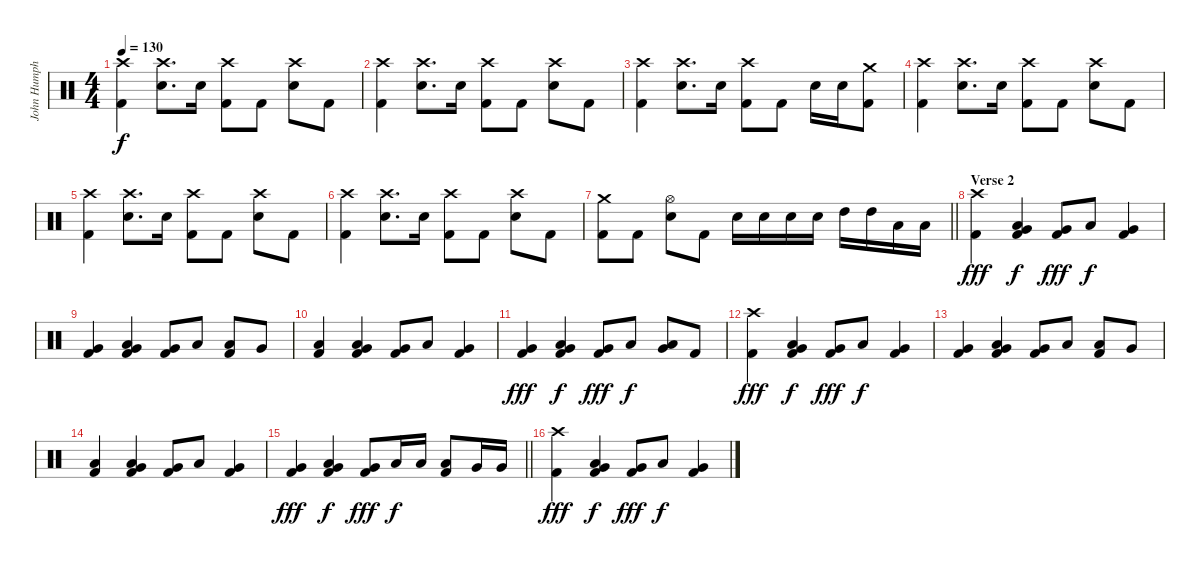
\track ("John Humphrey" "John Humph") {instrument percussion}
\staff {score}
\articulation defaults
\ts (4 4)
\tempo 130
\clef neutral
\ks c
("Crash high (hit)" "Kick (hit) 2").4{dy f} ("Crash high (hit)" "Electric Snare (hit)").8{d} "Electric Snare (hit)".16 ("Crash high (hit)" "Kick (hit) 2").8 "Kick (hit) 2".8 ("Crash high (hit)" "Electric Snare (hit)").8 "Kick (hit) 2".8 |
("Crash high (hit)" "Kick (hit) 2").4 ("Crash high (hit)" "Electric Snare (hit)").8{d} "Electric Snare (hit)".16 ("Crash high (hit)" "Kick (hit) 2").8 "Kick (hit) 2".8 ("Crash high (hit)" "Electric Snare (hit)").8 "Kick (hit) 2".8 |
("Crash high (hit)" "Kick (hit) 2").4 ("Crash high (hit)" "Electric Snare (hit)").8{d} "Electric Snare (hit)".16 ("Crash high (hit)" "Kick (hit) 2").8 "Kick (hit) 2".8 "Electric Snare (hit)".16 "Electric Snare (hit)".16 ("Crash medium (hit)" "Kick (hit) 2").8 |
("Crash high (hit)" "Kick (hit) 2").4 ("Crash high (hit)" "Electric Snare (hit)").8{d} "Electric Snare (hit)".16 ("Crash high (hit)" "Kick (hit) 2").8 "Kick (hit) 2".8 ("Crash high (hit)" "Electric Snare (hit)").8 "Kick (hit) 2".8 |
("Crash high (hit)" "Kick (hit) 2").4 ("Crash high (hit)" "Electric Snare (hit)").8{d} "Electric Snare (hit)".16 ("Crash high (hit)" "Kick (hit) 2").8 "Kick (hit) 2".8 ("Crash high (hit)" "Electric Snare (hit)").8 "Kick (hit) 2".8 |
("Crash high (hit)" "Kick (hit) 2").4 ("Crash high (hit)" "Electric Snare (hit)").8{d} "Electric Snare (hit)".16 ("Crash high (hit)" "Kick (hit) 2").8 "Kick (hit) 2".8 ("Crash high (hit)" "Electric Snare (hit)").8 "Kick (hit) 2".8 |
\barLineRight lightlight
("Crash medium (hit)" "Kick (hit) 2").8 "Kick (hit) 2".8 ("Hi-Hat (open)" "Electric Snare (hit)").8 "Kick (hit) 2".8 "Electric Snare (hit)".16 "Electric Snare (hit)".16 "Electric Snare (hit)".16 "Electric Snare (hit)".16 "High Tom (hit)".16 "High Tom (hit)".16 "Low Tom (hit)".16 "Low Tom (hit)".16 |
\section ("" "Verse 2")
("Crash high (hit)" "Kick (hit) 2").4{dy fff} ("Low Tom (hit)" "Very Low Tom (hit)" "Kick (hit) 2").4{dy f} ("Very Low Tom (hit)" "Kick (hit) 2").8{dy fff} "Low Tom (hit)".8{dy f} ("Very Low Tom (hit)" "Kick (hit) 2").4 |
("Very Low Tom (hit)" "Kick (hit) 2").4 ("Low Tom (hit)" "Very Low Tom (hit)" "Kick (hit) 2").4 ("Very Low Tom (hit)" "Kick (hit) 2").8 "Low Tom (hit)".8 ("Low Floor Tom (hit)" "Kick (hit) 2").8 "Very Low Tom (hit)".8 |
("Low Floor Tom (hit)" "Kick (hit) 2").4 ("Low Tom (hit)" "Very Low Tom (hit)" "Kick (hit) 2").4 ("Very Low Tom (hit)" "Kick (hit) 2").8 "Low Tom (hit)".8 ("Very Low Tom (hit)" "Kick (hit) 2").4 |
("Very Low Tom (hit)" "Kick (hit) 2").4{dy fff} ("Low Tom (hit)" "Very Low Tom (hit)" "Kick (hit) 2").4{dy f} ("Very Low Tom (hit)" "Kick (hit) 2").8{dy fff} "Low Tom (hit)".8{dy f} ("Low Tom (hit)" "Very Low Tom (hit)").8{bd 120} "Kick (hit) 2".8 |
("Crash high (hit)" "Kick (hit) 2").4{dy fff} ("Low Tom (hit)" "Very Low Tom (hit)" "Kick (hit) 2").4{dy f} ("Very Low Tom (hit)" "Kick (hit) 2").8{dy fff} "Low Tom (hit)".8{dy f} ("Very Low Tom (hit)" "Kick (hit) 2").4 |
("Very Low Tom (hit)" "Kick (hit) 2").4 ("Low Tom (hit)" "Very Low Tom (hit)" "Kick (hit) 2").4 ("Very Low Tom (hit)" "Kick (hit) 2").8 "Low Tom (hit)".8 ("Low Floor Tom (hit)" "Kick (hit) 2").8 "Very Low Tom (hit)".8 |
("Low Floor Tom (hit)" "Kick (hit) 2").4 ("Low Tom (hit)" "Very Low Tom (hit)" "Kick (hit) 2").4 ("Very Low Tom (hit)" "Kick (hit) 2").8 "Low Tom (hit)".8 ("Very Low Tom (hit)" "Kick (hit) 2").4 |
\barLineRight lightlight
("Very Low Tom (hit)" "Kick (hit) 2").4{dy fff} ("Low Tom (hit)" "Very Low Tom (hit)" "Kick (hit) 2").4{dy f} ("Very Low Tom (hit)" "Kick (hit) 2").8{dy fff} "Low Tom (hit)".16{dy f} "Low Tom (hit)".16 ("Low Tom (hit)" "Kick (hit) 2").8 "Very Low Tom (hit)".16 "Very Low Tom (hit)".16 |
("Crash high (hit)" "Kick (hit) 2").4{dy fff} ("Low Tom (hit)" "Very Low Tom (hit)" "Kick (hit) 2").4{dy f} ("Very Low Tom (hit)" "Kick (hit) 2").8{dy fff} "Low Tom (hit)".8{dy f} ("Very Low Tom (hit)" "Kick (hit) 2").4
